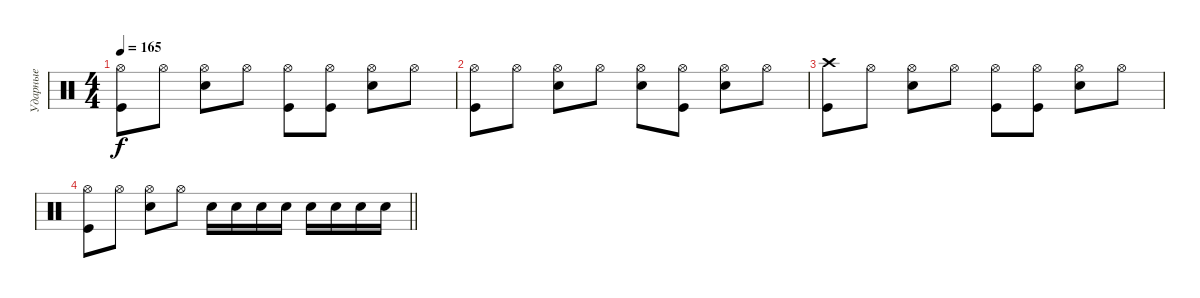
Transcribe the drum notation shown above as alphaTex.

\track ("Ударные" "Ударные") {instrument percussion}
\staff {score}
\articulation defaults
\ts (4 4)
\tempo 165
\clef neutral
\ks c
("Hi-Hat (open)" "Kick (hit)").8{dy f} "Hi-Hat (open)".8 ("Hi-Hat (open)" "Electric Snare (hit)").8 "Hi-Hat (open)".8 ("Hi-Hat (open)" "Kick (hit)").8 ("Hi-Hat (open)" "Kick (hit)").8 ("Hi-Hat (open)" "Electric Snare (hit)").8 "Hi-Hat (open)".8 |
("Hi-Hat (open)" "Kick (hit)").8 "Hi-Hat (open)".8 ("Hi-Hat (open)" "Electric Snare (hit)").8 "Hi-Hat (open)".8 ("Hi-Hat (open)" "Electric Snare (hit)").8 ("Hi-Hat (open)" "Kick (hit)").8 ("Hi-Hat (open)" "Electric Snare (hit)").8 "Hi-Hat (open)".8 |
("Crash high (hit)" "Kick (hit)").8 "Hi-Hat (open)".8 ("Hi-Hat (open)" "Electric Snare (hit)").8 "Hi-Hat (open)".8 ("Hi-Hat (open)" "Kick (hit)").8 ("Hi-Hat (open)" "Kick (hit)").8 ("Hi-Hat (open)" "Electric Snare (hit)").8 "Hi-Hat (open)".8 |
\barLineRight lightlight
("Hi-Hat (open)" "Kick (hit)").8 "Hi-Hat (open)".8 ("Hi-Hat (open)" "Electric Snare (hit)").8 "Hi-Hat (open)".8 "Electric Snare (hit)".16 "Electric Snare (hit)".16 "Electric Snare (hit)".16 "Electric Snare (hit)".16 "Electric Snare (hit)".16 "Electric Snare (hit)".16 "Electric Snare (hit)".16 "Electric Snare (hit)".16
